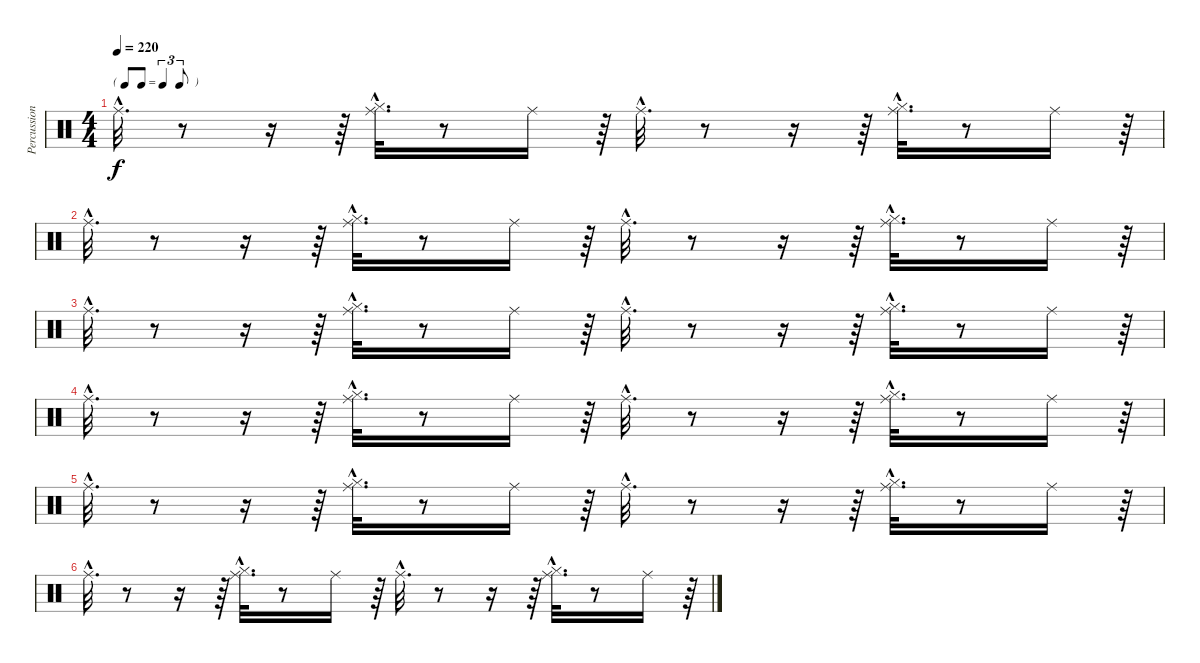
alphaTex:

\track ("Percussions" "Percussion") {instrument percussion}
\staff {score}
\articulation defaults
\ts (4 4)
\tf triplet8th
\tempo 220
\clef neutral
\ks c "Ride (middle)"{hac}.32{d dy f}
r.8 r.16 r.64 ("Hi-Hat (closed)"{hac} "Ride (middle)"{hac}).32{d} r.8 "Ride (middle)".16 r.64 "Ride (middle)"{hac}.32{d} r.8 r.16 r.64 ("Hi-Hat (closed)"{hac} "Ride (middle)"{hac}).32{d} r.8 "Ride (middle)".16 r.64 |
"Ride (middle)"{hac}.32{d} r.8 r.16 r.64 ("Hi-Hat (closed)"{hac} "Ride (middle)"{hac}).32{d} r.8 "Ride (middle)".16 r.64 "Ride (middle)"{hac}.32{d} r.8 r.16 r.64 ("Hi-Hat (closed)"{hac} "Ride (middle)"{hac}).32{d} r.8 "Ride (middle)".16 r.64 |
"Ride (middle)"{hac}.32{d} r.8 r.16 r.64 ("Hi-Hat (closed)"{hac} "Ride (middle)"{hac}).32{d} r.8 "Ride (middle)".16 r.64 "Ride (middle)"{hac}.32{d} r.8 r.16 r.64 ("Hi-Hat (closed)"{hac} "Ride (middle)"{hac}).32{d} r.8 "Ride (middle)".16 r.64 |
"Ride (middle)"{hac}.32{d} r.8 r.16 r.64 ("Hi-Hat (closed)"{hac} "Ride (middle)"{hac}).32{d} r.8 "Ride (middle)".16 r.64 "Ride (middle)"{hac}.32{d} r.8 r.16 r.64 ("Hi-Hat (closed)"{hac} "Ride (middle)"{hac}).32{d} r.8 "Ride (middle)".16 r.64 |
"Ride (middle)"{hac}.32{d} r.8 r.16 r.64 ("Hi-Hat (closed)"{hac} "Ride (middle)"{hac}).32{d} r.8 "Ride (middle)".16 r.64 "Ride (middle)"{hac}.32{d} r.8 r.16 r.64 ("Hi-Hat (closed)"{hac} "Ride (middle)"{hac}).32{d} r.8 "Ride (middle)".16 r.64 |
"Ride (middle)"{hac}.32{d} r.8 r.16 r.64 ("Hi-Hat (closed)"{hac} "Ride (middle)"{hac}).32{d} r.8 "Ride (middle)".16 r.64 "Ride (middle)"{hac}.32{d} r.8 r.16 r.64 ("Hi-Hat (closed)"{hac} "Ride (middle)"{hac}).32{d} r.8 "Ride (middle)".16 r.64
